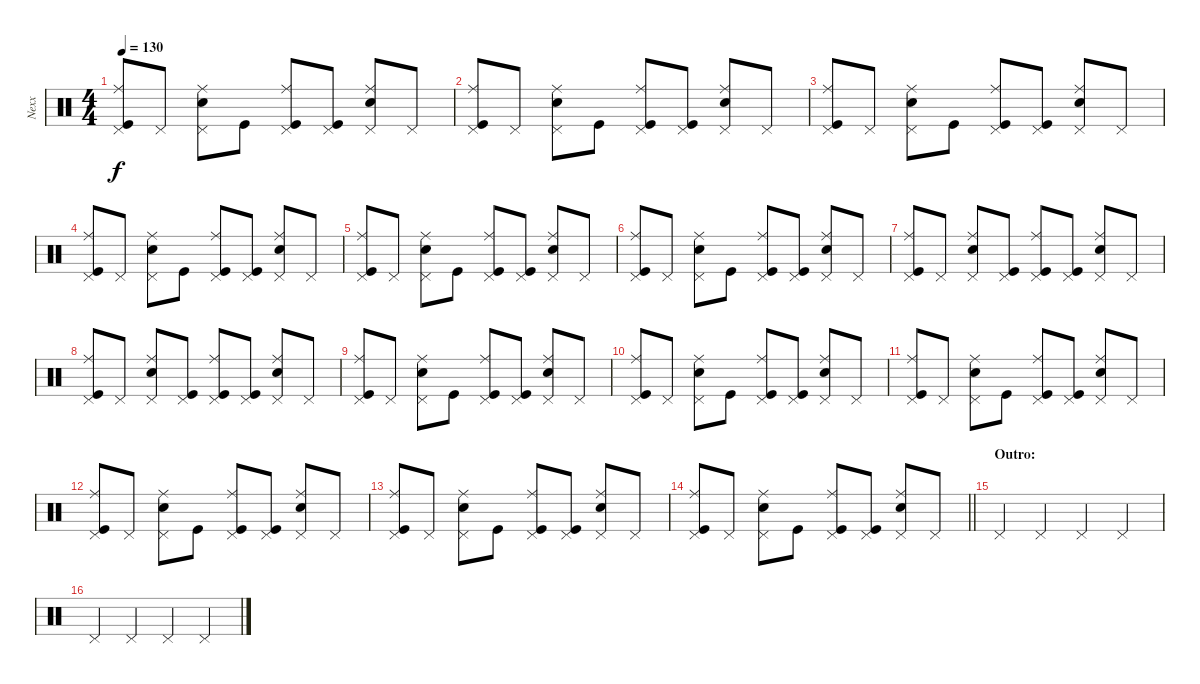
\track ("Nexx" "Nexx") {instrument percussion}
\staff {score}
\articulation defaults
\ts (4 4)
\tempo 130
\clef neutral
\ks c
("Ride (middle)" "Pedal Hi-Hat (hit)" "Kick (hit)").8{dy f} "Pedal Hi-Hat (hit)".8 ("Ride (middle)" "Pedal Hi-Hat (hit)" "Electric Snare (hit)").8 "Kick (hit)".8 ("Ride (middle)" "Pedal Hi-Hat (hit)" "Kick (hit)").8 ("Pedal Hi-Hat (hit)" "Kick (hit)").8 ("Ride (middle)" "Pedal Hi-Hat (hit)" "Electric Snare (hit)").8 "Pedal Hi-Hat (hit)".8 |
("Ride (middle)" "Pedal Hi-Hat (hit)" "Kick (hit)").8 "Pedal Hi-Hat (hit)".8 ("Ride (middle)" "Pedal Hi-Hat (hit)" "Electric Snare (hit)").8 "Kick (hit)".8 ("Ride (middle)" "Pedal Hi-Hat (hit)" "Kick (hit)").8 ("Pedal Hi-Hat (hit)" "Kick (hit)").8 ("Ride (middle)" "Pedal Hi-Hat (hit)" "Electric Snare (hit)").8 "Pedal Hi-Hat (hit)".8 |
("Ride (middle)" "Pedal Hi-Hat (hit)" "Kick (hit)").8 "Pedal Hi-Hat (hit)".8 ("Ride (middle)" "Pedal Hi-Hat (hit)" "Electric Snare (hit)").8 "Kick (hit)".8 ("Ride (middle)" "Pedal Hi-Hat (hit)" "Kick (hit)").8 ("Pedal Hi-Hat (hit)" "Kick (hit)").8 ("Ride (middle)" "Pedal Hi-Hat (hit)" "Electric Snare (hit)").8 "Pedal Hi-Hat (hit)".8 |
("Ride (middle)" "Pedal Hi-Hat (hit)" "Kick (hit)").8 "Pedal Hi-Hat (hit)".8 ("Ride (middle)" "Pedal Hi-Hat (hit)" "Electric Snare (hit)").8 "Kick (hit)".8 ("Ride (middle)" "Pedal Hi-Hat (hit)" "Kick (hit)").8 ("Pedal Hi-Hat (hit)" "Kick (hit)").8 ("Ride (middle)" "Pedal Hi-Hat (hit)" "Electric Snare (hit)").8 "Pedal Hi-Hat (hit)".8 |
("Ride (middle)" "Pedal Hi-Hat (hit)" "Kick (hit)").8 "Pedal Hi-Hat (hit)".8 ("Ride (middle)" "Pedal Hi-Hat (hit)" "Electric Snare (hit)").8 "Kick (hit)".8 ("Ride (middle)" "Pedal Hi-Hat (hit)" "Kick (hit)").8 ("Pedal Hi-Hat (hit)" "Kick (hit)").8 ("Ride (middle)" "Pedal Hi-Hat (hit)" "Electric Snare (hit)").8 "Pedal Hi-Hat (hit)".8 |
("Ride (middle)" "Pedal Hi-Hat (hit)" "Kick (hit)").8 "Pedal Hi-Hat (hit)".8 ("Ride (middle)" "Pedal Hi-Hat (hit)" "Electric Snare (hit)").8 "Kick (hit)".8 ("Ride (middle)" "Pedal Hi-Hat (hit)" "Kick (hit)").8 ("Pedal Hi-Hat (hit)" "Kick (hit)").8 ("Ride (middle)" "Pedal Hi-Hat (hit)" "Electric Snare (hit)").8 "Pedal Hi-Hat (hit)".8 |
("Ride (middle)" "Pedal Hi-Hat (hit)" "Kick (hit)").8 "Pedal Hi-Hat (hit)".8 ("Ride (middle)" "Pedal Hi-Hat (hit)" "Electric Snare (hit)").8 ("Pedal Hi-Hat (hit)" "Kick (hit)").8 ("Ride (middle)" "Pedal Hi-Hat (hit)" "Kick (hit)").8 ("Pedal Hi-Hat (hit)" "Kick (hit)").8 ("Ride (middle)" "Pedal Hi-Hat (hit)" "Electric Snare (hit)").8 "Pedal Hi-Hat (hit)".8 |
("Ride (middle)" "Pedal Hi-Hat (hit)" "Kick (hit)").8 "Pedal Hi-Hat (hit)".8 ("Ride (middle)" "Pedal Hi-Hat (hit)" "Electric Snare (hit)").8 ("Pedal Hi-Hat (hit)" "Kick (hit)").8 ("Ride (middle)" "Pedal Hi-Hat (hit)" "Kick (hit)").8 ("Pedal Hi-Hat (hit)" "Kick (hit)").8 ("Ride (middle)" "Pedal Hi-Hat (hit)" "Electric Snare (hit)").8 "Pedal Hi-Hat (hit)".8 |
("Ride (middle)" "Pedal Hi-Hat (hit)" "Kick (hit)").8 "Pedal Hi-Hat (hit)".8 ("Ride (middle)" "Pedal Hi-Hat (hit)" "Electric Snare (hit)").8 "Kick (hit)".8 ("Ride (middle)" "Pedal Hi-Hat (hit)" "Kick (hit)").8 ("Pedal Hi-Hat (hit)" "Kick (hit)").8 ("Ride (middle)" "Pedal Hi-Hat (hit)" "Electric Snare (hit)").8 "Pedal Hi-Hat (hit)".8 |
("Ride (middle)" "Pedal Hi-Hat (hit)" "Kick (hit)").8 "Pedal Hi-Hat (hit)".8 ("Ride (middle)" "Pedal Hi-Hat (hit)" "Electric Snare (hit)").8 "Kick (hit)".8 ("Ride (middle)" "Pedal Hi-Hat (hit)" "Kick (hit)").8 ("Pedal Hi-Hat (hit)" "Kick (hit)").8 ("Ride (middle)" "Pedal Hi-Hat (hit)" "Electric Snare (hit)").8 "Pedal Hi-Hat (hit)".8 |
("Ride (middle)" "Pedal Hi-Hat (hit)" "Kick (hit)").8 "Pedal Hi-Hat (hit)".8 ("Ride (middle)" "Pedal Hi-Hat (hit)" "Electric Snare (hit)").8 "Kick (hit)".8 ("Ride (middle)" "Pedal Hi-Hat (hit)" "Kick (hit)").8 ("Pedal Hi-Hat (hit)" "Kick (hit)").8 ("Ride (middle)" "Pedal Hi-Hat (hit)" "Electric Snare (hit)").8 "Pedal Hi-Hat (hit)".8 |
("Ride (middle)" "Pedal Hi-Hat (hit)" "Kick (hit)").8 "Pedal Hi-Hat (hit)".8 ("Ride (middle)" "Pedal Hi-Hat (hit)" "Electric Snare (hit)").8 "Kick (hit)".8 ("Ride (middle)" "Pedal Hi-Hat (hit)" "Kick (hit)").8 ("Pedal Hi-Hat (hit)" "Kick (hit)").8 ("Ride (middle)" "Pedal Hi-Hat (hit)" "Electric Snare (hit)").8 "Pedal Hi-Hat (hit)".8 |
("Ride (middle)" "Pedal Hi-Hat (hit)" "Kick (hit)").8 "Pedal Hi-Hat (hit)".8 ("Ride (middle)" "Pedal Hi-Hat (hit)" "Electric Snare (hit)").8 "Kick (hit)".8 ("Ride (middle)" "Pedal Hi-Hat (hit)" "Kick (hit)").8 ("Pedal Hi-Hat (hit)" "Kick (hit)").8 ("Ride (middle)" "Pedal Hi-Hat (hit)" "Electric Snare (hit)").8 "Pedal Hi-Hat (hit)".8 |
\barLineRight lightlight
("Ride (middle)" "Pedal Hi-Hat (hit)" "Kick (hit)").8 "Pedal Hi-Hat (hit)".8 ("Ride (middle)" "Pedal Hi-Hat (hit)" "Electric Snare (hit)").8 "Kick (hit)".8 ("Ride (middle)" "Pedal Hi-Hat (hit)" "Kick (hit)").8 ("Pedal Hi-Hat (hit)" "Kick (hit)").8 ("Ride (middle)" "Pedal Hi-Hat (hit)" "Electric Snare (hit)").8 "Pedal Hi-Hat (hit)".8 |
\section ("" "Outro:")
"Pedal Hi-Hat (hit)".4 "Pedal Hi-Hat (hit)".4 "Pedal Hi-Hat (hit)".4 "Pedal Hi-Hat (hit)".4 |
"Pedal Hi-Hat (hit)".4 "Pedal Hi-Hat (hit)".4 "Pedal Hi-Hat (hit)".4 "Pedal Hi-Hat (hit)".4
